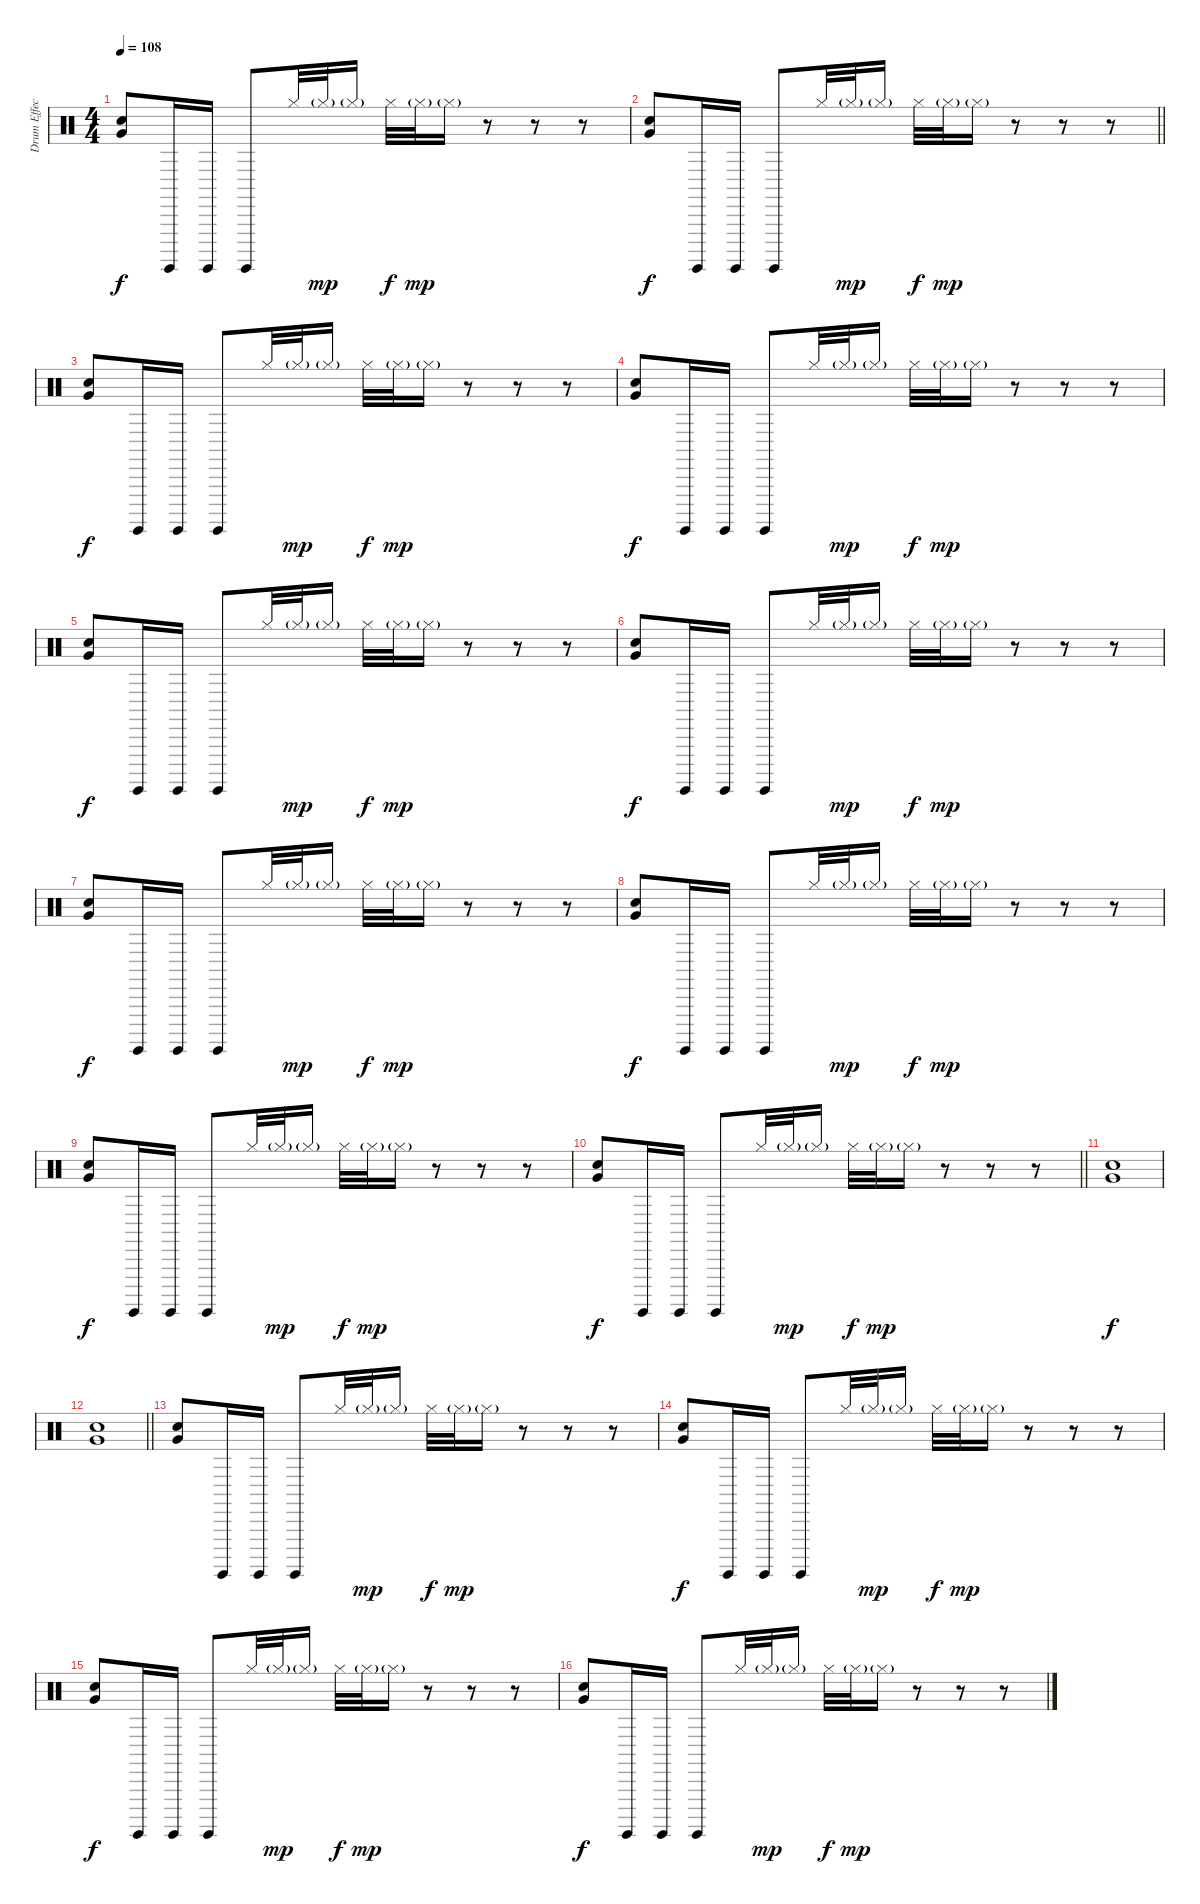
\track ("Drum Effects" "Drum Effec") {instrument percussion}
\staff {score}
\articulation defaults
\ts (4 4)
\tempo 108
\clef neutral
\ks c
("Hand Clap (hit)" "Very Low Tom (hit)").8{dy f} "Surdo (hit)".16 "Surdo (hit)".16 "Surdo (hit)".8 "Hi-Hat (closed)".32 "Hi-Hat (closed)"{g}.32{dy mp} "Hi-Hat (closed)"{g}.16 "Hi-Hat (closed)".32{dy f} "Hi-Hat (closed)"{g}.32{dy mp} "Hi-Hat (closed)"{g}.16 r.8 r.8 r.8 |
\barLineRight lightlight
("Hand Clap (hit)" "Very Low Tom (hit)").8{dy f} "Surdo (hit)".16 "Surdo (hit)".16 "Surdo (hit)".8 "Hi-Hat (closed)".32 "Hi-Hat (closed)"{g}.32{dy mp} "Hi-Hat (closed)"{g}.16 "Hi-Hat (closed)".32{dy f} "Hi-Hat (closed)"{g}.32{dy mp} "Hi-Hat (closed)"{g}.16 r.8 r.8 r.8 |
\section ("" "")
("Hand Clap (hit)" "Very Low Tom (hit)").8{dy f} "Surdo (hit)".16 "Surdo (hit)".16 "Surdo (hit)".8 "Hi-Hat (closed)".32 "Hi-Hat (closed)"{g}.32{dy mp} "Hi-Hat (closed)"{g}.16 "Hi-Hat (closed)".32{dy f} "Hi-Hat (closed)"{g}.32{dy mp} "Hi-Hat (closed)"{g}.16 r.8 r.8 r.8 |
("Hand Clap (hit)" "Very Low Tom (hit)").8{dy f} "Surdo (hit)".16 "Surdo (hit)".16 "Surdo (hit)".8 "Hi-Hat (closed)".32 "Hi-Hat (closed)"{g}.32{dy mp} "Hi-Hat (closed)"{g}.16 "Hi-Hat (closed)".32{dy f} "Hi-Hat (closed)"{g}.32{dy mp} "Hi-Hat (closed)"{g}.16 r.8 r.8 r.8 |
("Hand Clap (hit)" "Very Low Tom (hit)").8{dy f} "Surdo (hit)".16 "Surdo (hit)".16 "Surdo (hit)".8 "Hi-Hat (closed)".32 "Hi-Hat (closed)"{g}.32{dy mp} "Hi-Hat (closed)"{g}.16 "Hi-Hat (closed)".32{dy f} "Hi-Hat (closed)"{g}.32{dy mp} "Hi-Hat (closed)"{g}.16 r.8 r.8 r.8 |
("Hand Clap (hit)" "Very Low Tom (hit)").8{dy f} "Surdo (hit)".16 "Surdo (hit)".16 "Surdo (hit)".8 "Hi-Hat (closed)".32 "Hi-Hat (closed)"{g}.32{dy mp} "Hi-Hat (closed)"{g}.16 "Hi-Hat (closed)".32{dy f} "Hi-Hat (closed)"{g}.32{dy mp} "Hi-Hat (closed)"{g}.16 r.8 r.8 r.8 |
("Hand Clap (hit)" "Very Low Tom (hit)").8{dy f} "Surdo (hit)".16 "Surdo (hit)".16 "Surdo (hit)".8 "Hi-Hat (closed)".32 "Hi-Hat (closed)"{g}.32{dy mp} "Hi-Hat (closed)"{g}.16 "Hi-Hat (closed)".32{dy f} "Hi-Hat (closed)"{g}.32{dy mp} "Hi-Hat (closed)"{g}.16 r.8 r.8 r.8 |
("Hand Clap (hit)" "Very Low Tom (hit)").8{dy f} "Surdo (hit)".16 "Surdo (hit)".16 "Surdo (hit)".8 "Hi-Hat (closed)".32 "Hi-Hat (closed)"{g}.32{dy mp} "Hi-Hat (closed)"{g}.16 "Hi-Hat (closed)".32{dy f} "Hi-Hat (closed)"{g}.32{dy mp} "Hi-Hat (closed)"{g}.16 r.8 r.8 r.8 |
("Hand Clap (hit)" "Very Low Tom (hit)").8{dy f} "Surdo (hit)".16 "Surdo (hit)".16 "Surdo (hit)".8 "Hi-Hat (closed)".32 "Hi-Hat (closed)"{g}.32{dy mp} "Hi-Hat (closed)"{g}.16 "Hi-Hat (closed)".32{dy f} "Hi-Hat (closed)"{g}.32{dy mp} "Hi-Hat (closed)"{g}.16 r.8 r.8 r.8 |
\barLineRight lightlight
("Hand Clap (hit)" "Very Low Tom (hit)").8{dy f} "Surdo (hit)".16 "Surdo (hit)".16 "Surdo (hit)".8 "Hi-Hat (closed)".32 "Hi-Hat (closed)"{g}.32{dy mp} "Hi-Hat (closed)"{g}.16 "Hi-Hat (closed)".32{dy f} "Hi-Hat (closed)"{g}.32{dy mp} "Hi-Hat (closed)"{g}.16 r.8 r.8 r.8 |
\section ("" "")
("Hand Clap (hit)" "Very Low Tom (hit)").1{dy f} |
\barLineRight lightlight
("Hand Clap (hit)" "Very Low Tom (hit)").1 |
\section ("" "")
("Hand Clap (hit)" "Very Low Tom (hit)").8 "Surdo (hit)".16 "Surdo (hit)".16 "Surdo (hit)".8 "Hi-Hat (closed)".32 "Hi-Hat (closed)"{g}.32{dy mp} "Hi-Hat (closed)"{g}.16 "Hi-Hat (closed)".32{dy f} "Hi-Hat (closed)"{g}.32{dy mp} "Hi-Hat (closed)"{g}.16 r.8 r.8 r.8 |
("Hand Clap (hit)" "Very Low Tom (hit)").8{dy f} "Surdo (hit)".16 "Surdo (hit)".16 "Surdo (hit)".8 "Hi-Hat (closed)".32 "Hi-Hat (closed)"{g}.32{dy mp} "Hi-Hat (closed)"{g}.16 "Hi-Hat (closed)".32{dy f} "Hi-Hat (closed)"{g}.32{dy mp} "Hi-Hat (closed)"{g}.16 r.8 r.8 r.8 |
("Hand Clap (hit)" "Very Low Tom (hit)").8{dy f} "Surdo (hit)".16 "Surdo (hit)".16 "Surdo (hit)".8 "Hi-Hat (closed)".32 "Hi-Hat (closed)"{g}.32{dy mp} "Hi-Hat (closed)"{g}.16 "Hi-Hat (closed)".32{dy f} "Hi-Hat (closed)"{g}.32{dy mp} "Hi-Hat (closed)"{g}.16 r.8 r.8 r.8 |
("Hand Clap (hit)" "Very Low Tom (hit)").8{dy f} "Surdo (hit)".16 "Surdo (hit)".16 "Surdo (hit)".8 "Hi-Hat (closed)".32 "Hi-Hat (closed)"{g}.32{dy mp} "Hi-Hat (closed)"{g}.16 "Hi-Hat (closed)".32{dy f} "Hi-Hat (closed)"{g}.32{dy mp} "Hi-Hat (closed)"{g}.16 r.8 r.8 r.8
